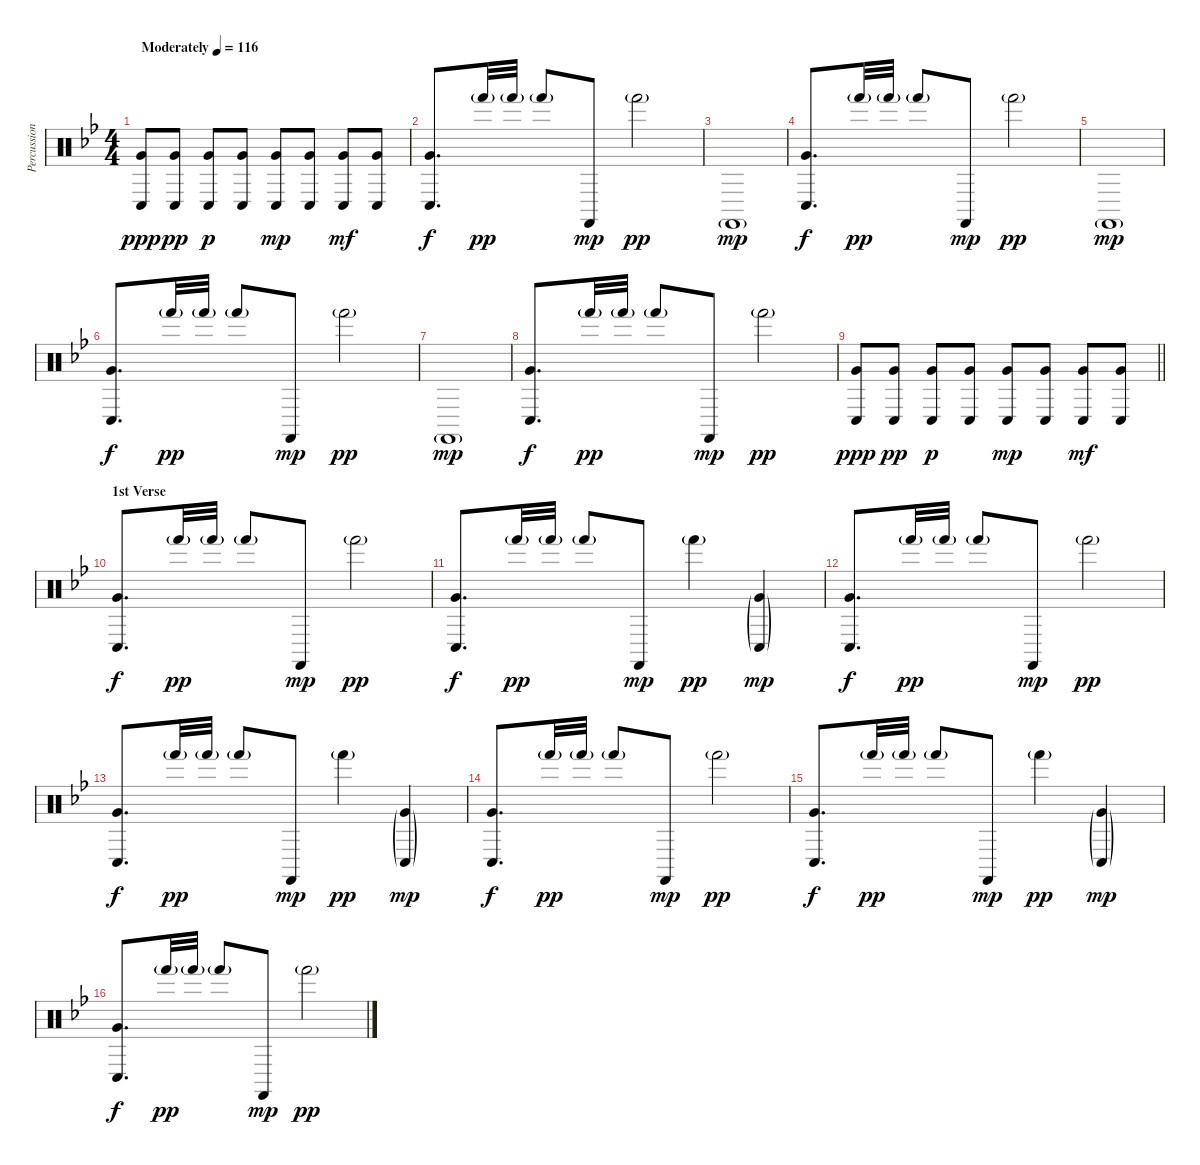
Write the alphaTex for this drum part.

\track ("Percussion" "Percussion") {instrument percussion}
\staff {score}
\articulation defaults
\ts (4 4)
\tempo (116 "Moderately")
\clef neutral
\ks gminor
("Conga low (hit)" "Very Low Tom (hit)").8{dy ppp} ("Conga low (hit)" "Very Low Tom (hit)").8{dy pp} ("Conga low (hit)" "Very Low Tom (hit)").8{dy p} ("Conga low (hit)" "Very Low Tom (hit)").8 ("Conga low (hit)" "Very Low Tom (hit)").8{dy mp} ("Conga low (hit)" "Very Low Tom (hit)").8 ("Conga low (hit)" "Very Low Tom (hit)").8{dy mf} ("Conga low (hit)" "Very Low Tom (hit)").8 |
("Conga low (hit)" "Very Low Tom (hit)").8{d dy f} "Hand (hit)"{g}.32{dy pp} "Hand (hit)"{g}.32 "Hand (hit)"{g}.8 "Castanets (hit)".8{dy mp} "Hand (hit)"{g}.2{dy pp} |
"Castanets (hit)"{g}.1{dy mp} |
("Conga low (hit)" "Very Low Tom (hit)").8{d dy f} "Hand (hit)"{g}.32{dy pp} "Hand (hit)"{g}.32 "Hand (hit)"{g}.8 "Castanets (hit)".8{dy mp} "Hand (hit)"{g}.2{dy pp} |
"Castanets (hit)"{g}.1{dy mp} |
("Conga low (hit)" "Very Low Tom (hit)").8{d dy f} "Hand (hit)"{g}.32{dy pp} "Hand (hit)"{g}.32 "Hand (hit)"{g}.8 "Castanets (hit)".8{dy mp} "Hand (hit)"{g}.2{dy pp} |
"Castanets (hit)"{g}.1{dy mp} |
("Conga low (hit)" "Very Low Tom (hit)").8{d dy f} "Hand (hit)"{g}.32{dy pp} "Hand (hit)"{g}.32 "Hand (hit)"{g}.8 "Castanets (hit)".8{dy mp} "Hand (hit)"{g}.2{dy pp} |
\barLineRight lightlight
("Conga low (hit)" "Very Low Tom (hit)").8{dy ppp} ("Conga low (hit)" "Very Low Tom (hit)").8{dy pp} ("Conga low (hit)" "Very Low Tom (hit)").8{dy p} ("Conga low (hit)" "Very Low Tom (hit)").8 ("Conga low (hit)" "Very Low Tom (hit)").8{dy mp} ("Conga low (hit)" "Very Low Tom (hit)").8 ("Conga low (hit)" "Very Low Tom (hit)").8{dy mf} ("Conga low (hit)" "Very Low Tom (hit)").8 |
\section ("" "1st Verse")
("Conga low (hit)" "Very Low Tom (hit)").8{d dy f} "Hand (hit)"{g}.32{dy pp} "Hand (hit)"{g}.32 "Hand (hit)"{g}.8 "Castanets (hit)".8{dy mp} "Hand (hit)"{g}.2{dy pp} |
("Conga low (hit)" "Very Low Tom (hit)").8{d dy f} "Hand (hit)"{g}.32{dy pp} "Hand (hit)"{g}.32 "Hand (hit)"{g}.8 "Castanets (hit)".8{dy mp} "Hand (hit)"{g}.4{dy pp} ("Conga low (hit)"{g} "Very Low Tom (hit)"{g}).4{dy mp} |
("Conga low (hit)" "Very Low Tom (hit)").8{d dy f} "Hand (hit)"{g}.32{dy pp} "Hand (hit)"{g}.32 "Hand (hit)"{g}.8 "Castanets (hit)".8{dy mp} "Hand (hit)"{g}.2{dy pp} |
("Conga low (hit)" "Very Low Tom (hit)").8{d dy f} "Hand (hit)"{g}.32{dy pp} "Hand (hit)"{g}.32 "Hand (hit)"{g}.8 "Castanets (hit)".8{dy mp} "Hand (hit)"{g}.4{dy pp} ("Conga low (hit)"{g} "Very Low Tom (hit)"{g}).4{dy mp} |
("Conga low (hit)" "Very Low Tom (hit)").8{d dy f} "Hand (hit)"{g}.32{dy pp} "Hand (hit)"{g}.32 "Hand (hit)"{g}.8 "Castanets (hit)".8{dy mp} "Hand (hit)"{g}.2{dy pp} |
("Conga low (hit)" "Very Low Tom (hit)").8{d dy f} "Hand (hit)"{g}.32{dy pp} "Hand (hit)"{g}.32 "Hand (hit)"{g}.8 "Castanets (hit)".8{dy mp} "Hand (hit)"{g}.4{dy pp} ("Conga low (hit)"{g} "Very Low Tom (hit)"{g}).4{dy mp} |
("Conga low (hit)" "Very Low Tom (hit)").8{d dy f} "Hand (hit)"{g}.32{dy pp} "Hand (hit)"{g}.32 "Hand (hit)"{g}.8 "Castanets (hit)".8{dy mp} "Hand (hit)"{g}.2{dy pp}
